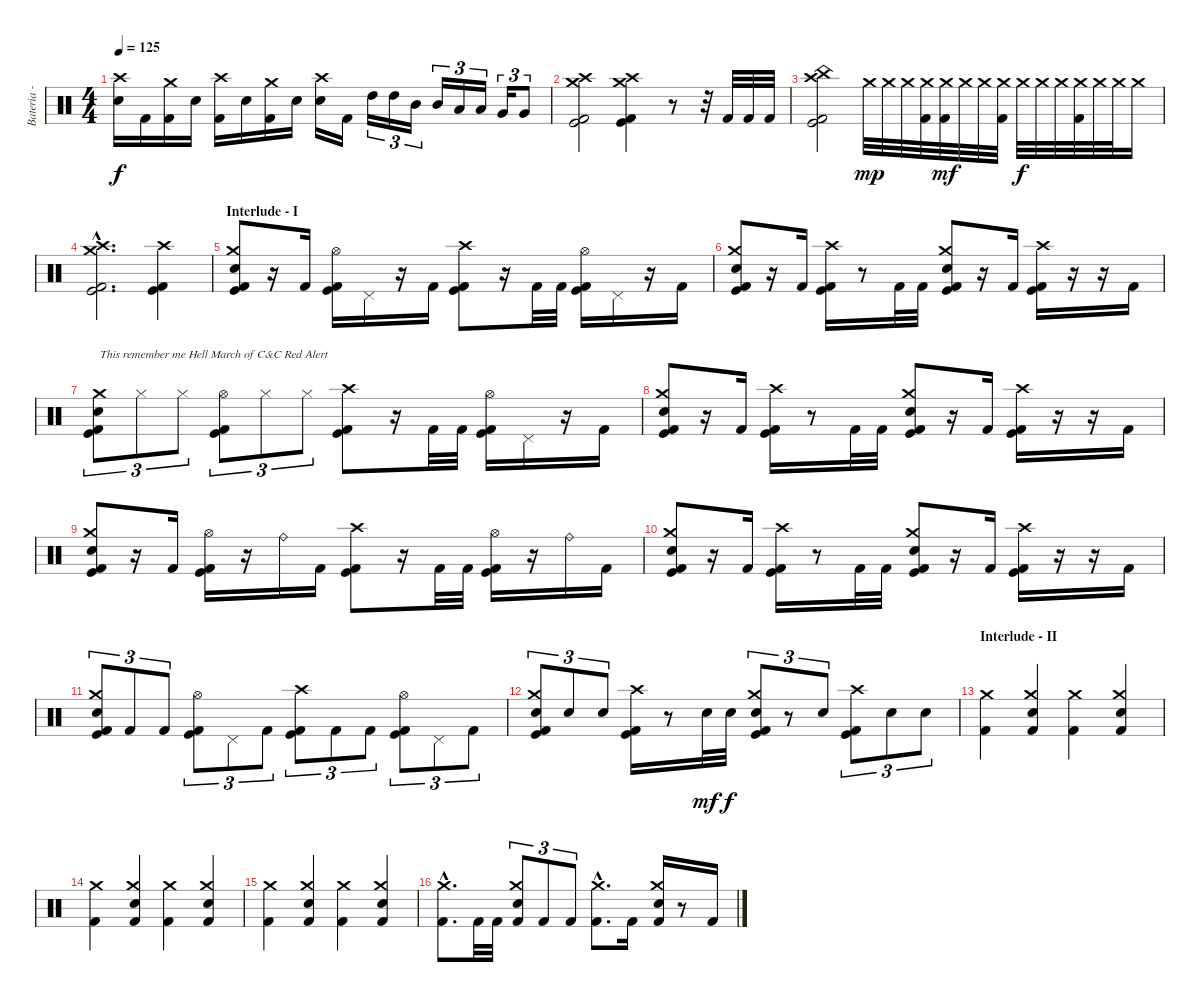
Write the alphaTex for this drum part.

\track ("Bateria - Drums" "Bateria - ") {instrument percussion}
\staff {score}
\articulation defaults
\ts (4 4)
\tempo 125
\clef neutral
\ks c
("Crash high (hit)" "Snare (hit) 2").16{dy f} "Kick (hit) 2".16 ("Crash medium (hit)" "Kick (hit) 2").16 "Snare (hit) 2".16 ("Crash high (hit)" "Kick (hit) 2").16 "Electric Snare (hit)".16 ("Crash medium (hit)" "Kick (hit) 2").16 "Electric Snare (hit)".16 ("Crash high (hit)" "Snare (hit) 2").16 "Kick (hit) 2".16 "High Tom (hit)".16{tu (3 2)} "High Tom (hit)".16{tu (3 2)} "Mid Tom (hit)".16{tu (3 2)} "Mid Tom (hit)".16{tu (3 2)} "Low Tom (hit)".16{tu (3 2)} "Low Tom (hit)".16{tu (3 2)} "Very Low Tom (hit)".16{tu (3 2)} "Very Low Tom (hit)".8{tu (3 2)} |
("Crash medium (hit)" "Crash high (hit)" "Kick (hit)" "Kick (hit) 2").2 ("Crash high (hit)" "Crash medium (hit)" "Kick (hit)" "Kick (hit) 2").4 r.8 r.32 "Kick (hit) 2".32 "Kick (hit) 2".32 "Kick (hit) 2".32 |
("China (hit)" "Crash high (hit)" "Kick (hit)" "Kick (hit) 2").2 "Crash medium (hit)".32{dy mp} "Crash medium (hit)".32 "Crash medium (hit)".32 ("Crash medium (hit)" "Kick (hit) 2").32 ("Crash medium (hit)" "Kick (hit) 2").32{dy mf} "Crash medium (hit)".32 "Crash medium (hit)".32 ("Crash medium (hit)" "Kick (hit) 2").32 "Crash medium (hit)".32{dy f} "Crash medium (hit)".32 "Crash medium (hit)".32 ("Crash medium (hit)" "Kick (hit) 2").32 "Crash medium (hit)".32 "Crash medium (hit)".32 "Crash medium (hit)".16 |
("Crash high (hit)"{hac} "Crash medium (hit)"{hac} "Kick (hit)"{hac} "Kick (hit) 2"{hac}).2{d} ("Crash high (hit)" "Kick (hit)" "Kick (hit) 2").4 |
\section ("" "Interlude - I")
("Crash medium (hit)" "Snare (hit) 2" "Kick (hit)" "Kick (hit) 2").8 r.16 "Kick (hit) 2".16 ("Hi-Hat (open)" "Kick (hit)" "Kick (hit) 2").16 "Pedal Hi-Hat (hit)".16 r.16 "Kick (hit) 2".16 ("Crash high (hit)" "Kick (hit)" "Kick (hit) 2").8 r.16 "Kick (hit) 2".32 "Kick (hit) 2".32 ("Hi-Hat (open)" "Kick (hit)" "Kick (hit) 2").16 "Pedal Hi-Hat (hit)".16 r.16 "Kick (hit) 2".16 |
("Crash medium (hit)" "Snare (hit) 2" "Kick (hit)" "Kick (hit) 2").8 r.16 "Kick (hit) 2".16 ("Crash high (hit)" "Kick (hit)" "Kick (hit) 2").16 r.8 "Kick (hit) 2".32 "Kick (hit) 2".32 ("Crash medium (hit)" "Snare (hit) 2" "Kick (hit)" "Kick (hit) 2").8 r.16 "Kick (hit) 2".16 ("Crash high (hit)" "Kick (hit)" "Kick (hit) 2").16 r.16 r.16 "Kick (hit) 2".16 |
("Crash medium (hit)" "Snare (hit) 2" "Kick (hit)" "Kick (hit) 2").8{tu (3 2) txt "This remember me Hell March of C&C Red Alert"} "Hi-Hat (closed)".8{tu (3 2)} "Hi-Hat (closed)".8{tu (3 2)} ("Hi-Hat (open)" "Kick (hit)" "Kick (hit) 2").8{tu (3 2)} "Hi-Hat (closed)".8{tu (3 2)} "Hi-Hat (closed)".8{tu (3 2)} ("Crash high (hit)" "Kick (hit)" "Kick (hit) 2").8 r.16 "Kick (hit) 2".32 "Kick (hit) 2".32 ("Hi-Hat (open)" "Kick (hit)" "Kick (hit) 2").16 "Pedal Hi-Hat (hit)".16 r.16 "Kick (hit) 2".16 |
("Crash medium (hit)" "Snare (hit) 2" "Kick (hit)" "Kick (hit) 2").8 r.16 "Kick (hit) 2".16 ("Crash high (hit)" "Kick (hit)" "Kick (hit) 2").16 r.8 "Kick (hit) 2".32 "Kick (hit) 2".32 ("Crash medium (hit)" "Snare (hit) 2" "Kick (hit)" "Kick (hit) 2").8 r.16 "Kick (hit) 2".16 ("Crash high (hit)" "Kick (hit)" "Kick (hit) 2").16 r.16 r.16 "Kick (hit) 2".16 |
("Crash medium (hit)" "Snare (hit) 2" "Kick (hit)" "Kick (hit) 2").8 r.16 "Kick (hit) 2".16 ("Hi-Hat (open)" "Kick (hit)" "Kick (hit) 2").16 r.16 "Ride (bell)".16 "Kick (hit) 2".16 ("Crash high (hit)" "Kick (hit)" "Kick (hit) 2").8 r.16 "Kick (hit) 2".32 "Kick (hit) 2".32 ("Hi-Hat (open)" "Kick (hit)" "Kick (hit) 2").16 r.16 "Ride (bell)".16 "Kick (hit) 2".16 |
("Crash medium (hit)" "Snare (hit) 2" "Kick (hit)" "Kick (hit) 2").8 r.16 "Kick (hit) 2".16 ("Crash high (hit)" "Kick (hit)" "Kick (hit) 2").16 r.8 "Kick (hit) 2".32 "Kick (hit) 2".32 ("Crash medium (hit)" "Snare (hit) 2" "Kick (hit)" "Kick (hit) 2").8 r.16 "Kick (hit) 2".16 ("Crash high (hit)" "Kick (hit)" "Kick (hit) 2").16 r.16 r.16 "Kick (hit) 2".16 |
("Crash medium (hit)" "Snare (hit) 2" "Kick (hit)" "Kick (hit) 2").8{tu (3 2)} "Kick (hit) 2".8{tu (3 2)} "Kick (hit) 2".8{tu (3 2)} ("Hi-Hat (open)" "Kick (hit)" "Kick (hit) 2").8{tu (3 2)} "Pedal Hi-Hat (hit)".8{tu (3 2)} "Kick (hit) 2".8{tu (3 2)} ("Crash high (hit)" "Kick (hit)" "Kick (hit) 2").8{tu (3 2)} "Kick (hit) 2".8{tu (3 2)} "Kick (hit) 2".8{tu (3 2)} ("Hi-Hat (open)" "Kick (hit)" "Kick (hit) 2").8{tu (3 2)} "Pedal Hi-Hat (hit)".8{tu (3 2)} "Kick (hit) 2".8{tu (3 2)} |
("Crash medium (hit)" "Snare (hit) 2" "Kick (hit)" "Kick (hit) 2").8{tu (3 2)} "Snare (hit) 2".8{tu (3 2)} "Snare (hit) 2".8{tu (3 2)} ("Crash high (hit)" "Kick (hit)" "Kick (hit) 2").16 r.8 "Snare (hit) 2".32{dy mf} "Snare (hit) 2".32{dy f} ("Crash medium (hit)" "Snare (hit) 2" "Kick (hit)" "Kick (hit) 2").8{tu (3 2)} r.8{tu (3 2)} "Snare (hit) 2".8{tu (3 2)} ("Crash high (hit)" "Kick (hit)" "Kick (hit) 2").8{tu (3 2)} "Snare (hit) 2".8{tu (3 2)} "Snare (hit) 2".8{tu (3 2)} |
\section ("" "Interlude - II")
("Crash medium (hit)" "Kick (hit) 2").4 ("Crash medium (hit)" "Electric Snare (hit)" "Kick (hit) 2").4 ("Crash medium (hit)" "Kick (hit) 2").4 ("Crash medium (hit)" "Electric Snare (hit)" "Kick (hit) 2").4 |
("Crash medium (hit)" "Kick (hit) 2").4 ("Crash medium (hit)" "Electric Snare (hit)" "Kick (hit) 2").4 ("Crash medium (hit)" "Kick (hit) 2").4 ("Crash medium (hit)" "Electric Snare (hit)" "Kick (hit) 2").4 |
("Crash medium (hit)" "Kick (hit) 2").4 ("Crash medium (hit)" "Electric Snare (hit)" "Kick (hit) 2").4 ("Crash medium (hit)" "Kick (hit) 2").4 ("Crash medium (hit)" "Electric Snare (hit)" "Kick (hit) 2").4 |
("Crash medium (hit)"{hac} "Kick (hit) 2"{hac}).8{d} "Kick (hit) 2".32 "Kick (hit) 2".32 ("Crash medium (hit)" "Electric Snare (hit)" "Kick (hit) 2").8{tu (3 2)} "Kick (hit) 2".8{tu (3 2)} "Kick (hit) 2".8{tu (3 2)} ("Crash medium (hit)"{hac} "Kick (hit) 2"{hac}).8{d} "Kick (hit) 2".16 ("Crash medium (hit)" "Electric Snare (hit)" "Kick (hit) 2").16 r.8 "Kick (hit) 2".16
